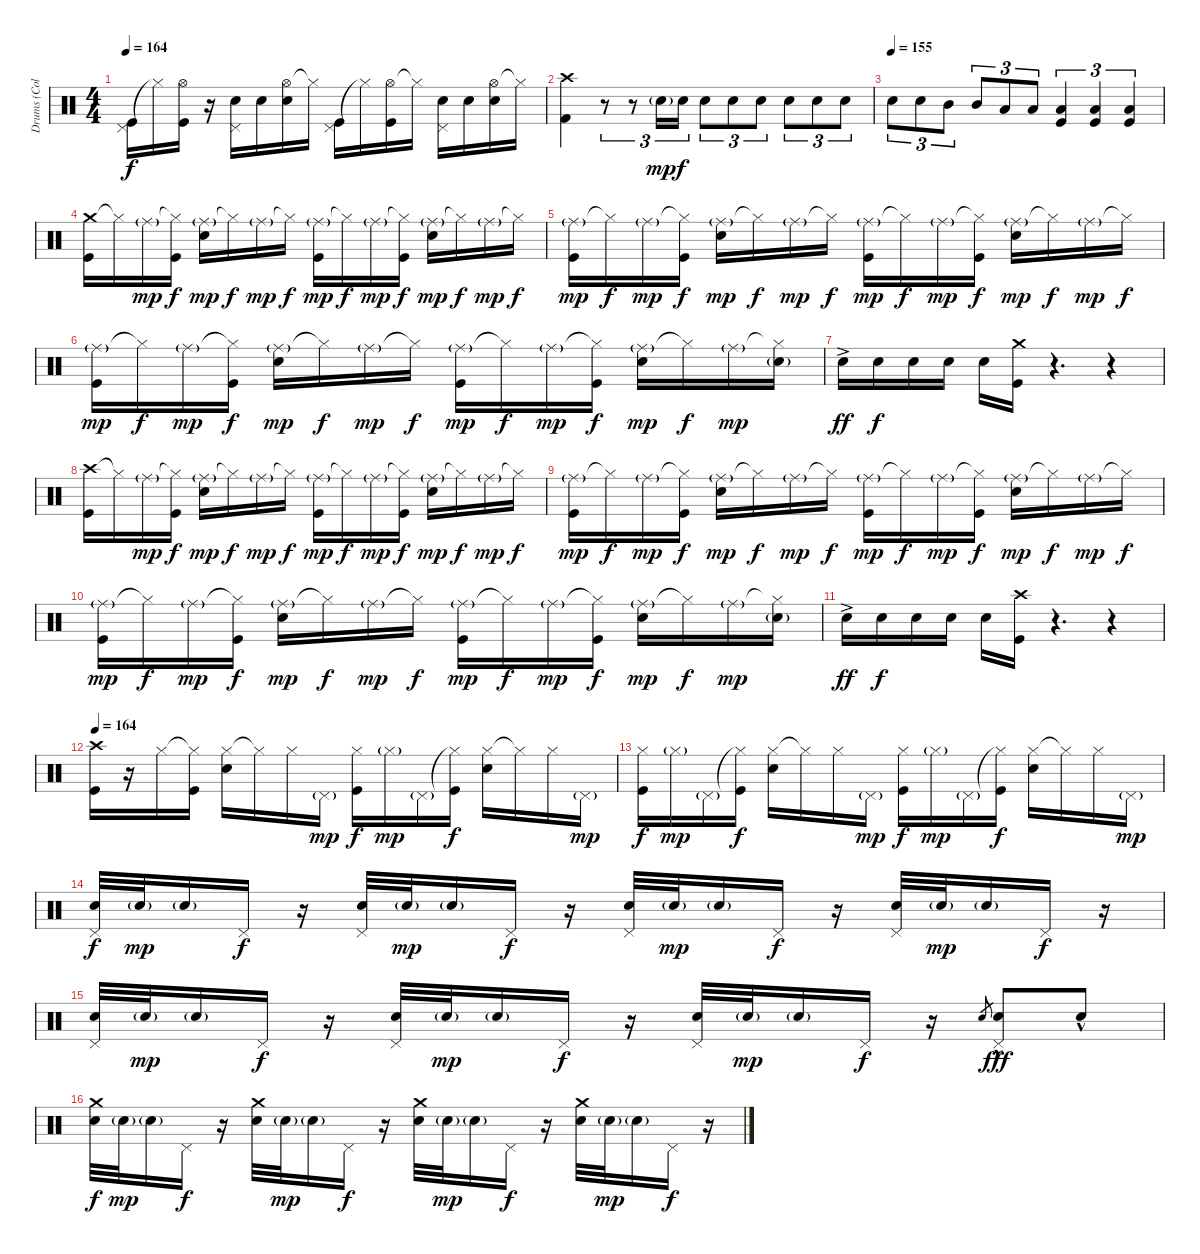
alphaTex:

\track ("Drums (Collins)" "Drums (Col") {instrument percussion}
\staff {score}
\articulation defaults
\ts (4 4)
\tempo 164
\clef neutral
\ks c
("Pedal Hi-Hat (hit)" "Kick (hit)").16{dy f} "Hi-Hat (closed)"{t}.16 ("Hi-Hat (open)" "Kick (hit)").16 r.16 ("Pedal Hi-Hat (hit)" "Snare (hit) 2").16 "Snare (hit) 2".16 ("Hi-Hat (open)" "Snare (hit) 2").16 "Hi-Hat (closed)"{t}.16 ("Pedal Hi-Hat (hit)" "Kick (hit)").16 "Hi-Hat (closed)"{t}.16 ("Hi-Hat (open)" "Kick (hit)").16 "Hi-Hat (closed)"{t}.16 ("Pedal Hi-Hat (hit)" "Snare (hit) 2").16 "Snare (hit) 2".16 ("Hi-Hat (open)" "Snare (hit) 2").16 "Hi-Hat (closed)"{t}.16 |
("Crash high (hit)" "Kick (hit) 2").4 r.8{tu (3 2)} r.8{tu (3 2)} "Snare (hit) 2"{g}.16{tu (3 2) dy mp} "Snare (hit) 2".16{tu (3 2) dy f} "Snare (hit) 2".8{tu (3 2)} "Snare (hit) 2".8{tu (3 2)} "Snare (hit) 2".8{tu (3 2)} "Snare (hit) 2".8{tu (3 2)} "Snare (hit) 2".8{tu (3 2)} "Snare (hit) 2".8{tu (3 2)} |
\tempo (155)
"Snare (hit) 2".8{tu (3 2)} "Snare (hit) 2".8{tu (3 2)} "Mid Tom (hit)".8{tu (3 2)} "Mid Tom (hit)".8{tu (3 2)} "Low Tom (hit)".8{tu (3 2)} "Low Tom (hit)".8{tu (3 2)} ("Low Floor Tom (hit)" "Kick (hit)").4{tu (3 2)} ("Low Floor Tom (hit)" "Kick (hit)").4{tu (3 2)} ("Low Floor Tom (hit)" "Kick (hit)").4{tu (3 2)} |
("Crash medium (hit)" "Kick (hit)").16 "Hi-Hat (closed)"{t}.16 "Ride (middle)"{g}.16{dy mp} ("Hi-Hat (closed)"{t} "Kick (hit)").16{dy f} ("Ride (middle)"{g} "Snare (hit) 2").16{dy mp} "Hi-Hat (closed)"{t}.16{dy f} "Ride (middle)"{g}.16{dy mp} "Hi-Hat (closed)"{t}.16{dy f} ("Ride (middle)"{g} "Kick (hit)").16{dy mp} "Hi-Hat (closed)"{t}.16{dy f} "Ride (middle)"{g}.16{dy mp} ("Hi-Hat (closed)"{t} "Kick (hit)").16{dy f} ("Ride (middle)"{g} "Snare (hit) 2").16{dy mp} "Hi-Hat (closed)"{t}.16{dy f} "Ride (middle)"{g}.16{dy mp} "Hi-Hat (closed)"{t}.16{dy f} |
("Ride (middle)"{g} "Kick (hit)").16{dy mp} "Hi-Hat (closed)"{t}.16{dy f} "Ride (middle)"{g}.16{dy mp} ("Hi-Hat (closed)"{t} "Kick (hit)").16{dy f} ("Ride (middle)"{g} "Snare (hit) 2").16{dy mp} "Hi-Hat (closed)"{t}.16{dy f} "Ride (middle)"{g}.16{dy mp} "Hi-Hat (closed)"{t}.16{dy f} ("Ride (middle)"{g} "Kick (hit)").16{dy mp} "Hi-Hat (closed)"{t}.16{dy f} "Ride (middle)"{g}.16{dy mp} ("Hi-Hat (closed)"{t} "Kick (hit)").16{dy f} ("Ride (middle)"{g} "Snare (hit) 2").16{dy mp} "Hi-Hat (closed)"{t}.16{dy f} "Ride (middle)"{g}.16{dy mp} "Hi-Hat (closed)"{t}.16{dy f} |
("Ride (middle)"{g} "Kick (hit)").16{dy mp} "Hi-Hat (closed)"{t}.16{dy f} "Ride (middle)"{g}.16{dy mp} ("Hi-Hat (closed)"{t} "Kick (hit)").16{dy f} ("Ride (middle)"{g} "Snare (hit) 2").16{dy mp} "Hi-Hat (closed)"{t}.16{dy f} "Ride (middle)"{g}.16{dy mp} "Hi-Hat (closed)"{t}.16{dy f} ("Ride (middle)"{g} "Kick (hit)").16{dy mp} "Hi-Hat (closed)"{t}.16{dy f} "Ride (middle)"{g}.16{dy mp} ("Hi-Hat (closed)"{t} "Kick (hit)").16{dy f} ("Ride (middle)"{g} "Snare (hit) 2").16{dy mp} "Hi-Hat (closed)"{t}.16{dy f} "Ride (middle)"{g}.16{dy mp} ("Hi-Hat (closed)"{t} "Snare (hit) 2"{g}).16 |
"Snare (hit) 2"{ac}.16{dy ff} "Snare (hit) 2".16{dy f} "Snare (hit) 2".16 "Snare (hit) 2".16 "Snare (hit) 2".16 ("Crash medium (hit)" "Kick (hit)").16 r.4{d} r.4 |
("Crash high (hit)" "Kick (hit)").16 "Hi-Hat (closed)"{t}.16 "Ride (middle)"{g}.16{dy mp} ("Hi-Hat (closed)"{t} "Kick (hit)").16{dy f} ("Ride (middle)"{g} "Snare (hit) 2").16{dy mp} "Hi-Hat (closed)"{t}.16{dy f} "Ride (middle)"{g}.16{dy mp} "Hi-Hat (closed)"{t}.16{dy f} ("Ride (middle)"{g} "Kick (hit)").16{dy mp} "Hi-Hat (closed)"{t}.16{dy f} "Ride (middle)"{g}.16{dy mp} ("Hi-Hat (closed)"{t} "Kick (hit)").16{dy f} ("Ride (middle)"{g} "Snare (hit) 2").16{dy mp} "Hi-Hat (closed)"{t}.16{dy f} "Ride (middle)"{g}.16{dy mp} "Hi-Hat (closed)"{t}.16{dy f} |
("Ride (middle)"{g} "Kick (hit)").16{dy mp} "Hi-Hat (closed)"{t}.16{dy f} "Ride (middle)"{g}.16{dy mp} ("Hi-Hat (closed)"{t} "Kick (hit)").16{dy f} ("Ride (middle)"{g} "Snare (hit) 2").16{dy mp} "Hi-Hat (closed)"{t}.16{dy f} "Ride (middle)"{g}.16{dy mp} "Hi-Hat (closed)"{t}.16{dy f} ("Ride (middle)"{g} "Kick (hit)").16{dy mp} "Hi-Hat (closed)"{t}.16{dy f} "Ride (middle)"{g}.16{dy mp} ("Hi-Hat (closed)"{t} "Kick (hit)").16{dy f} ("Ride (middle)"{g} "Snare (hit) 2").16{dy mp} "Hi-Hat (closed)"{t}.16{dy f} "Ride (middle)"{g}.16{dy mp} "Hi-Hat (closed)"{t}.16{dy f} |
("Ride (middle)"{g} "Kick (hit)").16{dy mp} "Hi-Hat (closed)"{t}.16{dy f} "Ride (middle)"{g}.16{dy mp} ("Hi-Hat (closed)"{t} "Kick (hit)").16{dy f} ("Ride (middle)"{g} "Snare (hit) 2").16{dy mp} "Hi-Hat (closed)"{t}.16{dy f} "Ride (middle)"{g}.16{dy mp} "Hi-Hat (closed)"{t}.16{dy f} ("Ride (middle)"{g} "Kick (hit)").16{dy mp} "Hi-Hat (closed)"{t}.16{dy f} "Ride (middle)"{g}.16{dy mp} ("Hi-Hat (closed)"{t} "Kick (hit)").16{dy f} ("Ride (middle)"{g} "Snare (hit) 2").16{dy mp} "Hi-Hat (closed)"{t}.16{dy f} "Ride (middle)"{g}.16{dy mp} ("Hi-Hat (closed)"{t} "Snare (hit) 2"{g}).16 |
"Snare (hit) 2"{ac}.16{dy ff} "Snare (hit) 2".16{dy f} "Snare (hit) 2".16 "Snare (hit) 2".16 "Snare (hit) 2".16 ("Crash high (hit)" "Kick (hit)").16 r.4{d} r.4 |
\tempo 164
("Crash high (hit)" "Kick (hit)").16 r.16 "Hi-Hat (closed)".16 ("Hi-Hat (closed)"{t} "Kick (hit)").16 ("Hi-Hat (closed)" "Snare (hit) 2").16 "Hi-Hat (closed)"{t}.16 "Hi-Hat (closed)".16 "Pedal Hi-Hat (hit)"{g}.16{dy mp} ("Hi-Hat (closed)" "Kick (hit)").16{dy f} "Hi-Hat (closed)"{g}.16{dy mp} "Pedal Hi-Hat (hit)"{g}.16 ("Hi-Hat (closed)"{t} "Kick (hit)").16{dy f} ("Hi-Hat (closed)" "Snare (hit) 2").16 "Hi-Hat (closed)"{t}.16 "Hi-Hat (closed)".16 "Pedal Hi-Hat (hit)"{g}.16{dy mp} |
("Hi-Hat (closed)" "Kick (hit)").16{dy f} "Hi-Hat (closed)"{g}.16{dy mp} "Pedal Hi-Hat (hit)"{g}.16 ("Hi-Hat (closed)"{t} "Kick (hit)").16{dy f} ("Hi-Hat (closed)" "Snare (hit) 2").16 "Hi-Hat (closed)"{t}.16 "Hi-Hat (closed)".16 "Pedal Hi-Hat (hit)"{g}.16{dy mp} ("Hi-Hat (closed)" "Kick (hit)").16{dy f} "Hi-Hat (closed)"{g}.16{dy mp} "Pedal Hi-Hat (hit)"{g}.16 ("Hi-Hat (closed)"{t} "Kick (hit)").16{dy f} ("Hi-Hat (closed)" "Snare (hit) 2").16 "Hi-Hat (closed)"{t}.16 "Hi-Hat (closed)".16 "Pedal Hi-Hat (hit)"{g}.16{dy mp} |
("Pedal Hi-Hat (hit)" "Snare (hit) 2").32{dy f} "Snare (hit) 2"{g}.32{dy mp} "Snare (hit) 2"{g}.16 "Pedal Hi-Hat (hit)".16{dy f} r.16 ("Pedal Hi-Hat (hit)" "Snare (hit) 2").32 "Snare (hit) 2"{g}.32{dy mp} "Snare (hit) 2"{g}.16 "Pedal Hi-Hat (hit)".16{dy f} r.16 ("Pedal Hi-Hat (hit)" "Snare (hit) 2").32 "Snare (hit) 2"{g}.32{dy mp} "Snare (hit) 2"{g}.16 "Pedal Hi-Hat (hit)".16{dy f} r.16 ("Pedal Hi-Hat (hit)" "Snare (hit) 2").32 "Snare (hit) 2"{g}.32{dy mp} "Snare (hit) 2"{g}.16 "Pedal Hi-Hat (hit)".16{dy f} r.16 |
("Pedal Hi-Hat (hit)" "Snare (hit) 2").32 "Snare (hit) 2"{g}.32{dy mp} "Snare (hit) 2"{g}.16 "Pedal Hi-Hat (hit)".16{dy f} r.16 ("Pedal Hi-Hat (hit)" "Snare (hit) 2").32 "Snare (hit) 2"{g}.32{dy mp} "Snare (hit) 2"{g}.16 "Pedal Hi-Hat (hit)".16{dy f} r.16 ("Pedal Hi-Hat (hit)" "Snare (hit) 2").32 "Snare (hit) 2"{g}.32{dy mp} "Snare (hit) 2"{g}.16 "Pedal Hi-Hat (hit)".16{dy f} r.16 "Snare (hit) 2".8{gr} ("Pedal Hi-Hat (hit)" "Snare (hit) 2"{hac}).8{dy fff} "Snare (hit) 2"{hac}.8 |
("Crash medium (hit)" "Snare (hit) 2").32{dy f} "Snare (hit) 2"{g}.32{dy mp} "Snare (hit) 2"{g}.16 "Pedal Hi-Hat (hit)".16{dy f} r.16 ("Crash medium (hit)" "Snare (hit) 2").32 "Snare (hit) 2"{g}.32{dy mp} "Snare (hit) 2"{g}.16 "Pedal Hi-Hat (hit)".16{dy f} r.16 ("Crash medium (hit)" "Snare (hit) 2").32 "Snare (hit) 2"{g}.32{dy mp} "Snare (hit) 2"{g}.16 "Pedal Hi-Hat (hit)".16{dy f} r.16 ("Crash medium (hit)" "Snare (hit) 2").32 "Snare (hit) 2"{g}.32{dy mp} "Snare (hit) 2"{g}.16 "Pedal Hi-Hat (hit)".16{dy f} r.16
